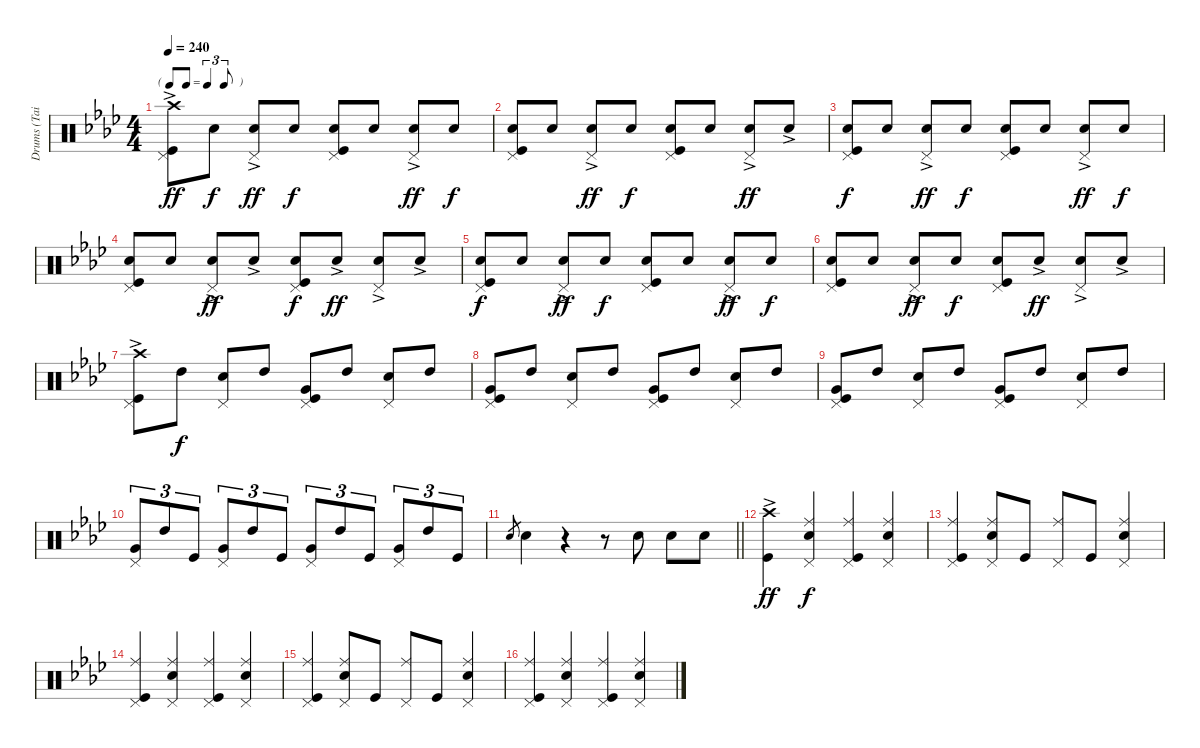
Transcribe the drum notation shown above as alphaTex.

\track ("Drums (Tainaka Ritsu)" "Drums (Tai") {instrument percussion}
\staff {score}
\articulation defaults
\ts (4 4)
\tf triplet8th
\tempo 240
\clef neutral
\ks ab
("Crash high (hit)"{ac} "Pedal Hi-Hat (hit)" "Kick (hit)").8{dy ff} "Snare (hit) 2".8{dy f} ("Pedal Hi-Hat (hit)" "Snare (hit) 2"{ac}).8{dy ff} "Snare (hit) 2".8{dy f} ("Kick (hit)" "Pedal Hi-Hat (hit)" "Snare (hit) 2").8 "Snare (hit) 2".8 ("Pedal Hi-Hat (hit)" "Snare (hit) 2"{ac}).8{dy ff} "Snare (hit) 2".8{dy f} |
("Pedal Hi-Hat (hit)" "Kick (hit)" "Snare (hit) 2").8 "Snare (hit) 2".8 ("Pedal Hi-Hat (hit)" "Snare (hit) 2"{ac}).8{dy ff} "Snare (hit) 2".8{dy f} ("Kick (hit)" "Snare (hit) 2" "Pedal Hi-Hat (hit)").8 "Snare (hit) 2".8 ("Pedal Hi-Hat (hit)" "Snare (hit) 2"{ac}).8{dy ff} "Snare (hit) 2"{ac}.8 |
("Pedal Hi-Hat (hit)" "Kick (hit)" "Snare (hit) 2").8{dy f} "Snare (hit) 2".8 ("Pedal Hi-Hat (hit)" "Snare (hit) 2"{ac}).8{dy ff} "Snare (hit) 2".8{dy f} ("Pedal Hi-Hat (hit)" "Kick (hit)" "Snare (hit) 2").8 "Snare (hit) 2".8 ("Pedal Hi-Hat (hit)" "Snare (hit) 2"{ac}).8{dy ff} "Snare (hit) 2".8{dy f} |
("Pedal Hi-Hat (hit)" "Kick (hit)" "Snare (hit) 2").8 "Snare (hit) 2".8 ("Pedal Hi-Hat (hit)" "Snare (hit) 2"{ac}).8{dy ff} "Snare (hit) 2"{ac}.8 ("Pedal Hi-Hat (hit)" "Kick (hit)" "Snare (hit) 2").8{dy f} "Snare (hit) 2"{ac}.8{dy ff} ("Pedal Hi-Hat (hit)" "Snare (hit) 2"{ac}).8 "Snare (hit) 2"{ac}.8 |
("Pedal Hi-Hat (hit)" "Kick (hit)" "Snare (hit) 2").8{dy f} "Snare (hit) 2".8 ("Pedal Hi-Hat (hit)" "Snare (hit) 2"{ac}).8{dy ff} "Snare (hit) 2".8{dy f} ("Pedal Hi-Hat (hit)" "Kick (hit)" "Snare (hit) 2").8 "Snare (hit) 2".8 ("Pedal Hi-Hat (hit)" "Snare (hit) 2"{ac}).8{dy ff} "Snare (hit) 2".8{dy f} |
("Pedal Hi-Hat (hit)" "Kick (hit)" "Snare (hit) 2").8 "Snare (hit) 2".8 ("Snare (hit) 2"{ac} "Pedal Hi-Hat (hit)").8{dy ff} "Snare (hit) 2".8{dy f} ("Pedal Hi-Hat (hit)" "Kick (hit)" "Snare (hit) 2").8 "Snare (hit) 2"{ac}.8{dy ff} ("Snare (hit) 2"{ac} "Pedal Hi-Hat (hit)").8 "Snare (hit) 2"{ac}.8 |
("Crash high (hit)"{ac} "Pedal Hi-Hat (hit)" "Kick (hit)").8 "High Tom (hit)".8{dy f} ("Pedal Hi-Hat (hit)" "Snare (hit) 2").8 "High Tom (hit)".8 ("Pedal Hi-Hat (hit)" "Kick (hit)" "Very Low Tom (hit)").8 "High Tom (hit)".8 ("Snare (hit) 2" "Pedal Hi-Hat (hit)").8 "High Tom (hit)".8 |
("Pedal Hi-Hat (hit)" "Kick (hit)" "Very Low Tom (hit)").8 "High Tom (hit)".8 ("Snare (hit) 2" "Pedal Hi-Hat (hit)").8 "High Tom (hit)".8 ("Pedal Hi-Hat (hit)" "Kick (hit)" "Very Low Tom (hit)").8 "High Tom (hit)".8 ("Pedal Hi-Hat (hit)" "Snare (hit) 2").8 "High Tom (hit)".8 |
("Pedal Hi-Hat (hit)" "Kick (hit)" "Very Low Tom (hit)").8 "High Tom (hit)".8 ("Pedal Hi-Hat (hit)" "Snare (hit) 2").8 "High Tom (hit)".8 ("Pedal Hi-Hat (hit)" "Kick (hit)" "Very Low Tom (hit)").8 "High Tom (hit)".8 ("Pedal Hi-Hat (hit)" "Snare (hit) 2").8 "High Tom (hit)".8 |
("Pedal Hi-Hat (hit)" "Very Low Tom (hit)").8{tu (3 2)} "High Tom (hit)".8{tu (3 2)} "Kick (hit)".8{tu (3 2)} ("Pedal Hi-Hat (hit)" "Very Low Tom (hit)").8{tu (3 2)} "High Tom (hit)".8{tu (3 2)} "Kick (hit)".8{tu (3 2)} ("Pedal Hi-Hat (hit)" "Very Low Tom (hit)").8{tu (3 2)} "High Tom (hit)".8{tu (3 2)} "Kick (hit)".8{tu (3 2)} ("Pedal Hi-Hat (hit)" "Very Low Tom (hit)").8{tu (3 2)} "High Tom (hit)".8{tu (3 2)} "Kick (hit)".8{tu (3 2)} |
\barLineRight lightlight "Snare (hit) 2".8{gr} "Snare (hit) 2".4
r.4 r.8 "Snare (hit) 2".8 "Snare (hit) 2".8 "Snare (hit) 2".8 |
("Crash high (hit)"{ac} "Kick (hit)").4{dy ff} ("Ride (middle)" "Snare (hit) 2" "Pedal Hi-Hat (hit)").4{dy f} ("Ride (middle)" "Pedal Hi-Hat (hit)" "Kick (hit)").4 ("Ride (middle)" "Pedal Hi-Hat (hit)" "Snare (hit) 2").4 |
("Ride (middle)" "Pedal Hi-Hat (hit)" "Kick (hit)").4 ("Ride (middle)" "Snare (hit) 2" "Pedal Hi-Hat (hit)").8 "Kick (hit)".8 ("Ride (middle)" "Pedal Hi-Hat (hit)").8 "Kick (hit)".8 ("Snare (hit) 2" "Pedal Hi-Hat (hit)" "Ride (middle)").4 |
("Kick (hit)" "Ride (middle)" "Pedal Hi-Hat (hit)").4 ("Snare (hit) 2" "Ride (middle)" "Pedal Hi-Hat (hit)").4 ("Kick (hit)" "Ride (middle)" "Pedal Hi-Hat (hit)").4 ("Snare (hit) 2" "Ride (middle)" "Pedal Hi-Hat (hit)").4 |
("Ride (middle)" "Pedal Hi-Hat (hit)" "Kick (hit)").4 ("Ride (middle)" "Snare (hit) 2" "Pedal Hi-Hat (hit)").8 "Kick (hit)".8 ("Ride (middle)" "Pedal Hi-Hat (hit)").8 "Kick (hit)".8 ("Snare (hit) 2" "Pedal Hi-Hat (hit)" "Ride (middle)").4 |
("Kick (hit)" "Ride (middle)" "Pedal Hi-Hat (hit)").4 ("Snare (hit) 2" "Ride (middle)" "Pedal Hi-Hat (hit)").4 ("Kick (hit)" "Ride (middle)" "Pedal Hi-Hat (hit)").4 ("Snare (hit) 2" "Ride (middle)" "Pedal Hi-Hat (hit)").4
